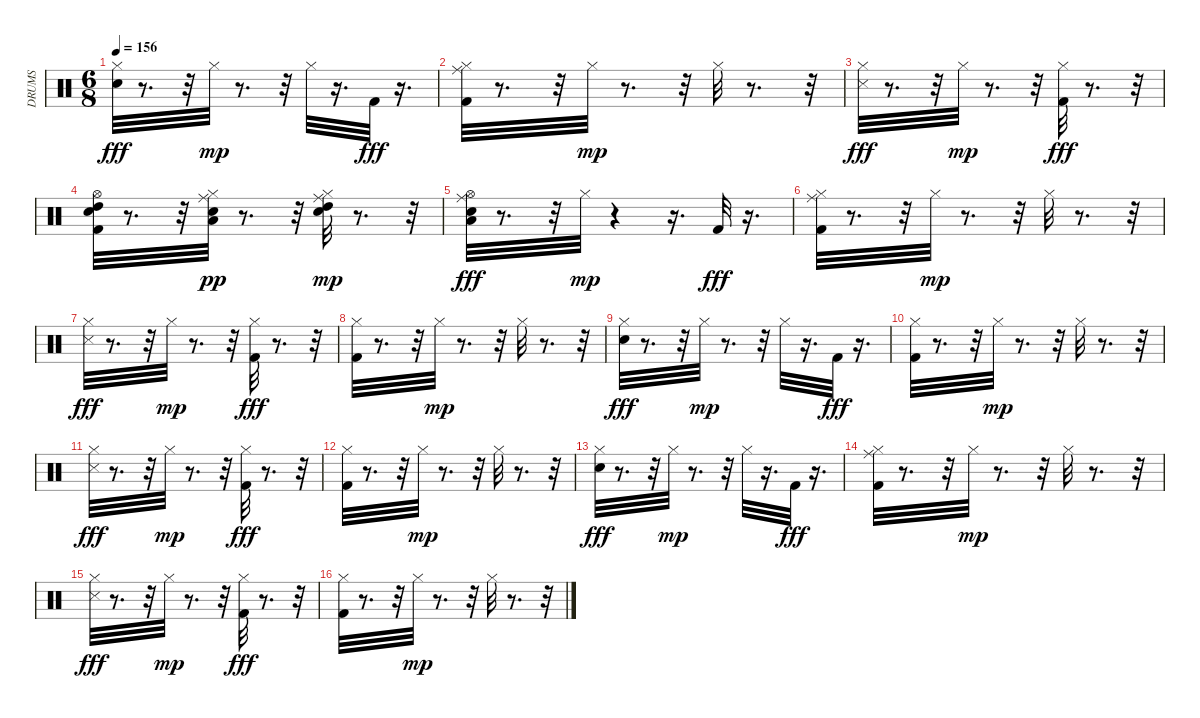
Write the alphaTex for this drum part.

\track ("DRUMS" "DRUMS") {instrument percussion}
\staff {score}
\articulation defaults
\ts (6 8)
\tempo 156
\clef neutral
\ks c
("Hi-Hat (closed)" "Snare (hit) 2").32{dy fff} r.8{d} r.32 "Hi-Hat (closed)".32{dy mp} r.8{d} r.32 "Hi-Hat (closed)".32 r.16{d} "Kick (hit) 2".32{dy fff} r.16{d} |
("Ride (middle)" "Hi-Hat (closed)" "Kick (hit) 2").32 r.8{d} r.32 "Hi-Hat (closed)".32{dy mp} r.8{d} r.32 "Hi-Hat (closed)".32 r.8{d} r.32 |
("Hi-Hat (closed)" "Snare (side stick) 3").32{dy fff} r.8{d} r.32 "Hi-Hat (closed)".32{dy mp} r.8{d} r.32 ("Hi-Hat (closed)" "Kick (hit) 2").32{dy fff} r.8{d} r.32 |
("High Tom (hit)" "Hi-Hat (open)" "Snare (hit) 2" "Kick (hit) 2").32 r.8{d} r.32 ("Low Tom (hit)" "Ride (middle)" "Hi-Hat (closed)" "Snare (hit) 2").32{dy pp} r.8{d} r.32 ("Ride (middle)" "High Tom (hit)" "Hi-Hat (closed)" "Snare (hit) 2").32{dy mp} r.8{d} r.32 |
("Low Floor Tom (hit)" "Ride (middle)" "Hi-Hat (open)" "Snare (hit) 2").32{dy fff} r.8{d} r.32 "Hi-Hat (closed)".32{dy mp} r.4 r.16{d} "Kick (hit) 2".32{dy fff} r.16{d} |
("Ride (middle)" "Hi-Hat (closed)" "Kick (hit) 2").32 r.8{d} r.32 "Hi-Hat (closed)".32{dy mp} r.8{d} r.32 "Hi-Hat (closed)".32 r.8{d} r.32 |
("Hi-Hat (closed)" "Snare (side stick) 3").32{dy fff} r.8{d} r.32 "Hi-Hat (closed)".32{dy mp} r.8{d} r.32 ("Hi-Hat (closed)" "Kick (hit) 2").32{dy fff} r.8{d} r.32 |
("Hi-Hat (closed)" "Kick (hit) 2").32 r.8{d} r.32 "Hi-Hat (closed)".32{dy mp} r.8{d} r.32 "Hi-Hat (closed)".32 r.8{d} r.32 |
("Hi-Hat (closed)" "Snare (hit) 2").32{dy fff} r.8{d} r.32 "Hi-Hat (closed)".32{dy mp} r.8{d} r.32 "Hi-Hat (closed)".32 r.16{d} "Kick (hit) 2".32{dy fff} r.16{d} |
("Hi-Hat (closed)" "Kick (hit) 2").32 r.8{d} r.32 "Hi-Hat (closed)".32{dy mp} r.8{d} r.32 "Hi-Hat (closed)".32 r.8{d} r.32 |
("Hi-Hat (closed)" "Snare (side stick) 3").32{dy fff} r.8{d} r.32 "Hi-Hat (closed)".32{dy mp} r.8{d} r.32 ("Hi-Hat (closed)" "Kick (hit) 2").32{dy fff} r.8{d} r.32 |
("Hi-Hat (closed)" "Kick (hit) 2").32 r.8{d} r.32 "Hi-Hat (closed)".32{dy mp} r.8{d} r.32 "Hi-Hat (closed)".32 r.8{d} r.32 |
("Hi-Hat (closed)" "Snare (hit) 2").32{dy fff} r.8{d} r.32 "Hi-Hat (closed)".32{dy mp} r.8{d} r.32 "Hi-Hat (closed)".32 r.16{d} "Kick (hit) 2".32{dy fff} r.16{d} |
("Ride (middle)" "Hi-Hat (closed)" "Kick (hit) 2").32 r.8{d} r.32 "Hi-Hat (closed)".32{dy mp} r.8{d} r.32 "Hi-Hat (closed)".32 r.8{d} r.32 |
("Snare (side stick) 3" "Hi-Hat (closed)").32{dy fff} r.8{d} r.32 "Hi-Hat (closed)".32{dy mp} r.8{d} r.32 ("Hi-Hat (closed)" "Kick (hit) 2").32{dy fff} r.8{d} r.32 |
("Hi-Hat (closed)" "Kick (hit) 2").32 r.8{d} r.32 "Hi-Hat (closed)".32{dy mp} r.8{d} r.32 "Hi-Hat (closed)".32 r.8{d} r.32
